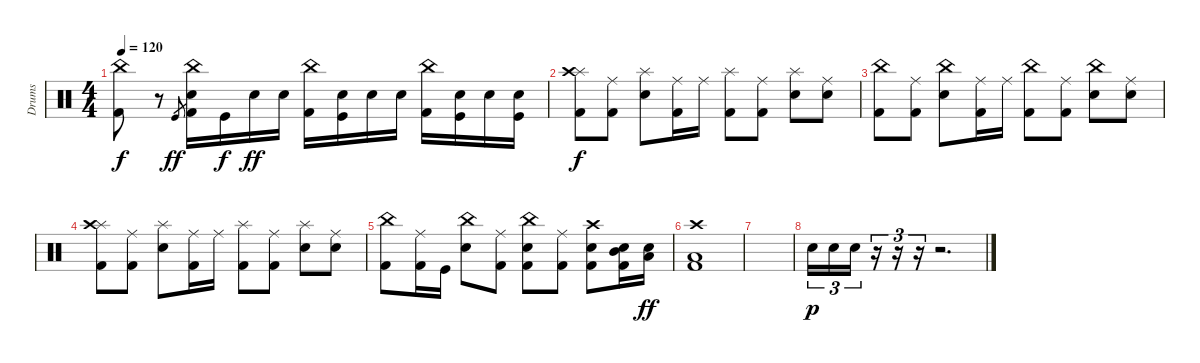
\track ("Drums" "Drums") {instrument percussion}
\staff {score}
\articulation defaults
\ts (4 4)
\tempo 120
\clef neutral
\ks c
("China (hit)" "Kick (hit) 2").8{dy f} r.8 "Kick (hit)".8{gr dy ff} ("China (hit)" "Electric Snare (hit)" "Kick (hit) 2").16 "Kick (hit)".16{dy f} "Electric Snare (hit)".16{dy ff} "Electric Snare (hit)".16 ("China (hit)" "Kick (hit) 2").16 ("Electric Snare (hit)" "Kick (hit)").16 "Electric Snare (hit)".16 "Electric Snare (hit)".16 ("China (hit)" "Kick (hit) 2").16 ("Electric Snare (hit)" "Kick (hit)").16 "Electric Snare (hit)".16 ("Electric Snare (hit)" "Kick (hit)").16 |
("Splash (hit)" "Crash high (hit)" "Kick (hit) 2").8{dy f} ("Ride (middle)" "Kick (hit) 2").8 ("Splash (hit)" "Electric Snare (hit)").8 ("Ride (middle)" "Kick (hit) 2").16 "Ride (middle)".16 ("Splash (hit)" "Kick (hit) 2").8 ("Ride (middle)" "Kick (hit) 2").8 ("Splash (hit)" "Electric Snare (hit)").8 ("Ride (middle)" "Electric Snare (hit)").8 |
("China (hit)" "Kick (hit) 2").8 ("Ride (middle)" "Kick (hit) 2").8 ("China (hit)" "Electric Snare (hit)").8 ("Ride (middle)" "Kick (hit) 2").16 "Ride (middle)".16 ("China (hit)" "Kick (hit) 2").8 ("Ride (middle)" "Kick (hit) 2").8 ("China (hit)" "Electric Snare (hit)").8 ("Ride (middle)" "Electric Snare (hit)").8 |
("Splash (hit)" "Crash high (hit)" "Kick (hit) 2").8 ("Ride (middle)" "Kick (hit) 2").8 ("Splash (hit)" "Electric Snare (hit)").8 ("Ride (middle)" "Kick (hit) 2").16 "Ride (middle)".16 ("Splash (hit)" "Kick (hit) 2").8 ("Ride (middle)" "Kick (hit) 2").8 ("Splash (hit)" "Electric Snare (hit)").8 ("Ride (middle)" "Electric Snare (hit)").8 |
("China (hit)" "Kick (hit) 2").8 ("Ride (middle)" "Kick (hit) 2").16 "Kick (hit)".16 ("China (hit)" "Electric Snare (hit)").8 ("Ride (middle)" "Kick (hit) 2").8 ("China (hit)" "Electric Snare (hit)" "Kick (hit) 2").8 ("Ride (middle)" "Kick (hit) 2").8 ("Crash high (hit)" "Electric Snare (hit)" "Kick (hit) 2").8 ("Mid Tom (hit)" "Electric Snare (hit)" "Kick (hit) 2").16 ("Low Tom (hit)" "Electric Snare (hit)").16{dy ff} |
("Crash high (hit)" "Low Floor Tom (hit)" "Kick (hit) 2").1 |
|
"Electric Snare (hit)".16{tu (3 2) dy p} "Electric Snare (hit)".16{tu (3 2)} "Electric Snare (hit)".16{tu (3 2)} r.16{tu (3 2)} r.16{tu (3 2)} r.16{tu (3 2)} r.2{d}
